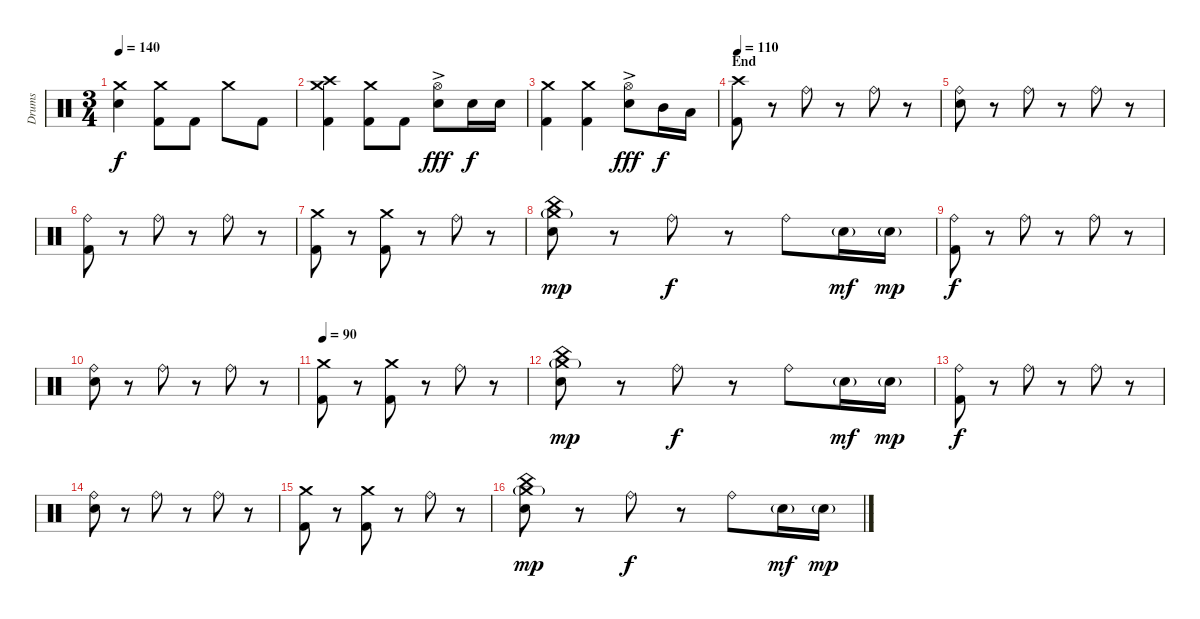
\track ("Drums" "Drums") {instrument percussion}
\staff {score}
\articulation defaults
\ts (3 4)
\tempo 140
\clef neutral
\ks c
("Crash medium (hit)" "Snare (hit) 2").4{dy f} ("Crash medium (hit)" "Kick (hit) 2").8 "Kick (hit) 2".8 "Crash medium (hit)".8 "Kick (hit) 2".8 |
("Crash high (hit)" "Crash medium (hit)" "Kick (hit) 2").4 ("Crash medium (hit)" "Kick (hit) 2").8 "Kick (hit) 2".8 ("Hi-Hat (open)"{ac} "Snare (hit) 2"{ac}).8{dy fff} "Snare (hit) 2".16{dy f} "Snare (hit) 2".16 |
("Crash medium (hit)" "Kick (hit) 2").4 ("Crash medium (hit)" "Kick (hit) 2").4 ("Hi-Hat (open)"{ac} "Snare (hit) 2"{ac}).8{dy fff} "Mid Tom (hit)".16{dy f} "Low Tom (hit)".16 |
\section ("" "End")
\tempo 110
("Crash high (hit)" "Kick (hit) 2").8 r.8 "Ride (bell)".8 r.8 "Ride (bell)".8 r.8 |
("Ride (bell)" "Snare (hit) 2").8 r.8 "Ride (bell)".8 r.8 "Ride (bell)".8 r.8 |
("Ride (bell)" "Kick (hit) 2").8 r.8 "Ride (bell)".8 r.8 "Ride (bell)".8 r.8 |
("Crash medium (hit)" "Kick (hit) 2").8 r.8 ("Crash medium (hit)" "Kick (hit) 2").8 r.8 "Ride (bell)".8 r.8 |
("Crash medium (hit)"{g} "China (hit)" "Snare (hit) 2").8{dy mp} r.8 "Ride (bell)".8{dy f} r.8 "Ride (bell)".8 "Snare (hit) 2"{g}.16{dy mf} "Snare (hit) 2"{g}.16{dy mp} |
("Ride (bell)" "Kick (hit) 2").8{dy f} r.8 "Ride (bell)".8 r.8 "Ride (bell)".8 r.8 |
("Ride (bell)" "Snare (hit) 2").8 r.8 "Ride (bell)".8 r.8 "Ride (bell)".8 r.8 |
\tempo 90
("Crash medium (hit)" "Kick (hit) 2").8 r.8 ("Crash medium (hit)" "Kick (hit) 2").8 r.8 "Ride (bell)".8 r.8 |
("Crash medium (hit)"{g} "China (hit)" "Snare (hit) 2").8{dy mp} r.8 "Ride (bell)".8{dy f} r.8 "Ride (bell)".8 "Snare (hit) 2"{g}.16{dy mf} "Snare (hit) 2"{g}.16{dy mp} |
("Ride (bell)" "Kick (hit) 2").8{dy f} r.8 "Ride (bell)".8 r.8 "Ride (bell)".8 r.8 |
("Ride (bell)" "Snare (hit) 2").8 r.8 "Ride (bell)".8 r.8 "Ride (bell)".8 r.8 |
("Crash medium (hit)" "Kick (hit) 2").8 r.8 ("Crash medium (hit)" "Kick (hit) 2").8 r.8 "Ride (bell)".8 r.8 |
("Crash medium (hit)"{g} "China (hit)" "Snare (hit) 2").8{dy mp} r.8 "Ride (bell)".8{dy f} r.8 "Ride (bell)".8 "Snare (hit) 2"{g}.16{dy mf} "Snare (hit) 2"{g}.16{dy mp}
